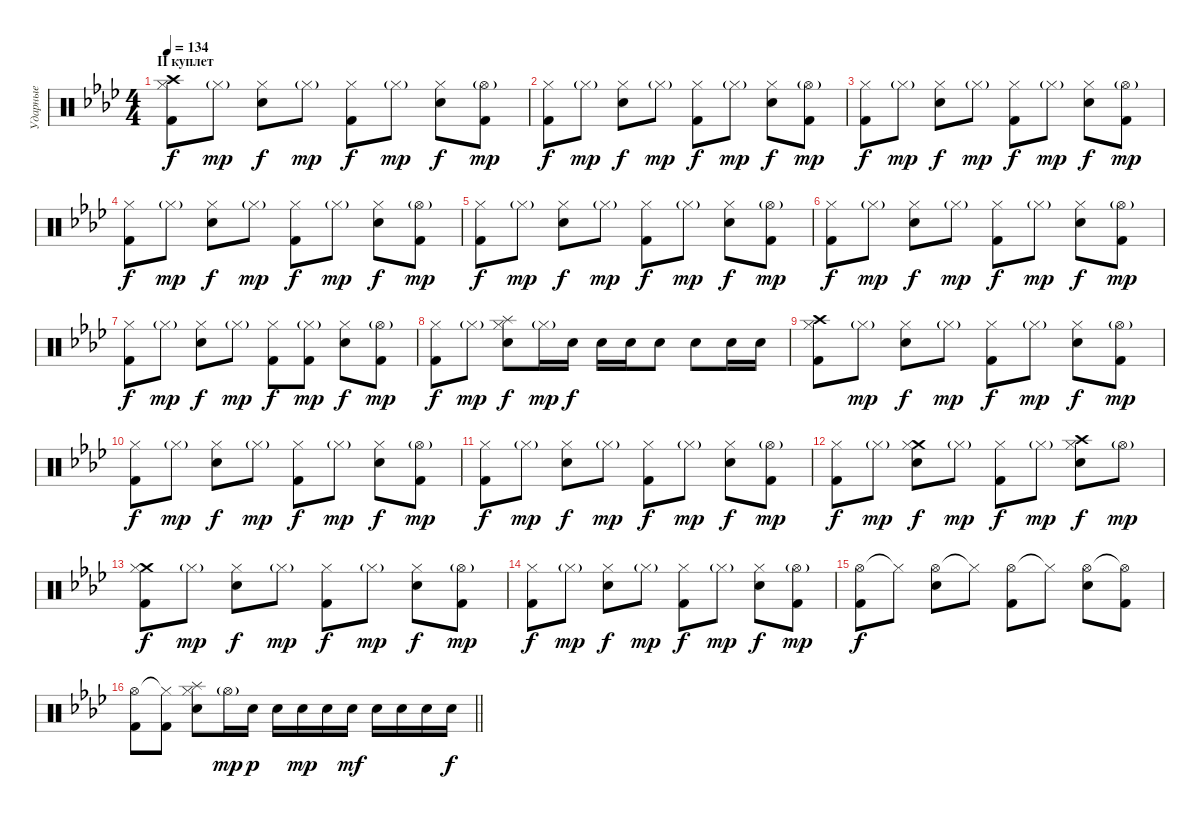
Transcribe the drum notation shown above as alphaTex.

\track ("Ударные" "Ударные") {instrument percussion}
\staff {score}
\articulation defaults
\ts (4 4)
\section ("" "II куплет")
\tempo 134
\clef neutral
\ks fminor
("Crash high (hit)" "Hi-Hat (closed)" "Kick (hit) 2").8{dy f} "Hi-Hat (closed)"{g}.8{dy mp} ("Hi-Hat (closed)" "Electric Snare (hit)").8{dy f} "Hi-Hat (closed)"{g}.8{dy mp} ("Hi-Hat (closed)" "Kick (hit) 2").8{dy f} "Hi-Hat (closed)"{g}.8{dy mp} ("Hi-Hat (closed)" "Electric Snare (hit)").8{dy f} ("Hi-Hat (open)"{g} "Kick (hit) 2").8{dy mp} |
("Hi-Hat (closed)" "Kick (hit) 2").8{dy f} "Hi-Hat (closed)"{g}.8{dy mp} ("Hi-Hat (closed)" "Electric Snare (hit)").8{dy f} "Hi-Hat (closed)"{g}.8{dy mp} ("Hi-Hat (closed)" "Kick (hit) 2").8{dy f} "Hi-Hat (closed)"{g}.8{dy mp} ("Hi-Hat (closed)" "Electric Snare (hit)").8{dy f} ("Hi-Hat (open)"{g} "Kick (hit) 2").8{dy mp} |
("Hi-Hat (closed)" "Kick (hit) 2").8{dy f} "Hi-Hat (closed)"{g}.8{dy mp} ("Hi-Hat (closed)" "Electric Snare (hit)").8{dy f} "Hi-Hat (closed)"{g}.8{dy mp} ("Hi-Hat (closed)" "Kick (hit) 2").8{dy f} "Hi-Hat (closed)"{g}.8{dy mp} ("Hi-Hat (closed)" "Electric Snare (hit)").8{dy f} ("Hi-Hat (open)"{g} "Kick (hit) 2").8{dy mp} |
("Hi-Hat (closed)" "Kick (hit) 2").8{dy f} "Hi-Hat (closed)"{g}.8{dy mp} ("Hi-Hat (closed)" "Electric Snare (hit)").8{dy f} "Hi-Hat (closed)"{g}.8{dy mp} ("Hi-Hat (closed)" "Kick (hit) 2").8{dy f} "Hi-Hat (closed)"{g}.8{dy mp} ("Hi-Hat (closed)" "Electric Snare (hit)").8{dy f} ("Hi-Hat (open)"{g} "Kick (hit) 2").8{dy mp} |
("Hi-Hat (closed)" "Kick (hit) 2").8{dy f} "Hi-Hat (closed)"{g}.8{dy mp} ("Hi-Hat (closed)" "Electric Snare (hit)").8{dy f} "Hi-Hat (closed)"{g}.8{dy mp} ("Hi-Hat (closed)" "Kick (hit) 2").8{dy f} "Hi-Hat (closed)"{g}.8{dy mp} ("Hi-Hat (closed)" "Electric Snare (hit)").8{dy f} ("Hi-Hat (open)"{g} "Kick (hit) 2").8{dy mp} |
("Hi-Hat (closed)" "Kick (hit) 2").8{dy f} "Hi-Hat (closed)"{g}.8{dy mp} ("Hi-Hat (closed)" "Electric Snare (hit)").8{dy f} "Hi-Hat (closed)"{g}.8{dy mp} ("Hi-Hat (closed)" "Kick (hit) 2").8{dy f} "Hi-Hat (closed)"{g}.8{dy mp} ("Hi-Hat (closed)" "Electric Snare (hit)").8{dy f} ("Hi-Hat (open)"{g} "Kick (hit) 2").8{dy mp} |
("Hi-Hat (closed)" "Kick (hit) 2").8{dy f} "Hi-Hat (closed)"{g}.8{dy mp} ("Hi-Hat (closed)" "Electric Snare (hit)").8{dy f} "Hi-Hat (closed)"{g}.8{dy mp} ("Hi-Hat (closed)" "Kick (hit) 2").8{dy f} ("Hi-Hat (closed)"{g} "Kick (hit) 2").8{dy mp} ("Hi-Hat (closed)" "Electric Snare (hit)").8{dy f} ("Hi-Hat (open)"{g} "Kick (hit) 2").8{dy mp} |
("Hi-Hat (closed)" "Kick (hit) 2").8{dy f} "Hi-Hat (closed)"{g}.8{dy mp} ("Splash (hit)" "Hi-Hat (closed)" "Electric Snare (hit)").8{dy f} "Hi-Hat (closed)"{g}.16{dy mp} "Electric Snare (hit)".16{dy f} "Electric Snare (hit)".16 "Electric Snare (hit)".16 "Electric Snare (hit)".8 "Electric Snare (hit)".8 "Electric Snare (hit)".16 "Electric Snare (hit)".16 |
("Crash high (hit)" "Hi-Hat (closed)" "Kick (hit) 2").8 "Hi-Hat (closed)"{g}.8{dy mp} ("Hi-Hat (closed)" "Electric Snare (hit)").8{dy f} "Hi-Hat (closed)"{g}.8{dy mp} ("Hi-Hat (closed)" "Kick (hit) 2").8{dy f} "Hi-Hat (closed)"{g}.8{dy mp} ("Hi-Hat (closed)" "Electric Snare (hit)").8{dy f} ("Hi-Hat (open)"{g} "Kick (hit) 2").8{dy mp} |
("Hi-Hat (closed)" "Kick (hit) 2").8{dy f} "Hi-Hat (closed)"{g}.8{dy mp} ("Hi-Hat (closed)" "Electric Snare (hit)").8{dy f} "Hi-Hat (closed)"{g}.8{dy mp} ("Hi-Hat (closed)" "Kick (hit) 2").8{dy f} "Hi-Hat (closed)"{g}.8{dy mp} ("Hi-Hat (closed)" "Electric Snare (hit)").8{dy f} ("Hi-Hat (open)"{g} "Kick (hit) 2").8{dy mp} |
("Hi-Hat (closed)" "Kick (hit) 2").8{dy f} "Hi-Hat (closed)"{g}.8{dy mp} ("Hi-Hat (closed)" "Electric Snare (hit)").8{dy f} "Hi-Hat (closed)"{g}.8{dy mp} ("Hi-Hat (closed)" "Kick (hit) 2").8{dy f} "Hi-Hat (closed)"{g}.8{dy mp} ("Hi-Hat (closed)" "Electric Snare (hit)").8{dy f} ("Hi-Hat (open)"{g} "Kick (hit) 2").8{dy mp} |
("Hi-Hat (closed)" "Kick (hit) 2").8{dy f} "Hi-Hat (closed)"{g}.8{dy mp} ("Crash medium (hit)" "Hi-Hat (closed)" "Electric Snare (hit)").8{dy f} "Hi-Hat (closed)"{g}.8{dy mp} ("Hi-Hat (closed)" "Kick (hit) 2").8{dy f} "Hi-Hat (closed)"{g}.8{dy mp} ("Crash high (hit)" "Hi-Hat (closed)" "Electric Snare (hit)").8{dy f} "Hi-Hat (open)"{g}.8{dy mp} |
("Crash medium (hit)" "Hi-Hat (closed)" "Kick (hit) 2").8{dy f} "Hi-Hat (closed)"{g}.8{dy mp} ("Hi-Hat (closed)" "Electric Snare (hit)").8{dy f} "Hi-Hat (closed)"{g}.8{dy mp} ("Hi-Hat (closed)" "Kick (hit) 2").8{dy f} "Hi-Hat (closed)"{g}.8{dy mp} ("Hi-Hat (closed)" "Electric Snare (hit)").8{dy f} ("Hi-Hat (open)"{g} "Kick (hit) 2").8{dy mp} |
("Hi-Hat (closed)" "Kick (hit) 2").8{dy f} "Hi-Hat (closed)"{g}.8{dy mp} ("Hi-Hat (closed)" "Electric Snare (hit)").8{dy f} "Hi-Hat (closed)"{g}.8{dy mp} ("Hi-Hat (closed)" "Kick (hit) 2").8{dy f} "Hi-Hat (closed)"{g}.8{dy mp} ("Hi-Hat (closed)" "Electric Snare (hit)").8{dy f} ("Hi-Hat (open)"{g} "Kick (hit) 2").8{dy mp} |
("Hi-Hat (open)" "Kick (hit) 2").8{dy f} "Hi-Hat (closed)"{t}.8 ("Hi-Hat (open)" "Electric Snare (hit)").8 "Hi-Hat (closed)"{t}.8 ("Hi-Hat (open)" "Kick (hit) 2").8 "Hi-Hat (closed)"{t}.8 ("Hi-Hat (open)" "Electric Snare (hit)").8 ("Hi-Hat (open)"{t} "Kick (hit) 2").8 |
\barLineRight lightlight
("Hi-Hat (open)" "Kick (hit) 2").8 ("Hi-Hat (closed)"{t} "Kick (hit) 2").8 ("Splash (hit)" "Hi-Hat (closed)" "Electric Snare (hit)").8 "Hi-Hat (open)"{g}.16{dy mp} "Electric Snare (hit)".16{dy p} "Electric Snare (hit)".16 "Electric Snare (hit)".16{dy mp} "Electric Snare (hit)".16 "Electric Snare (hit)".16{dy mf} "Electric Snare (hit)".16 "Electric Snare (hit)".16 "Electric Snare (hit)".16 "Electric Snare (hit)".16{dy f}
